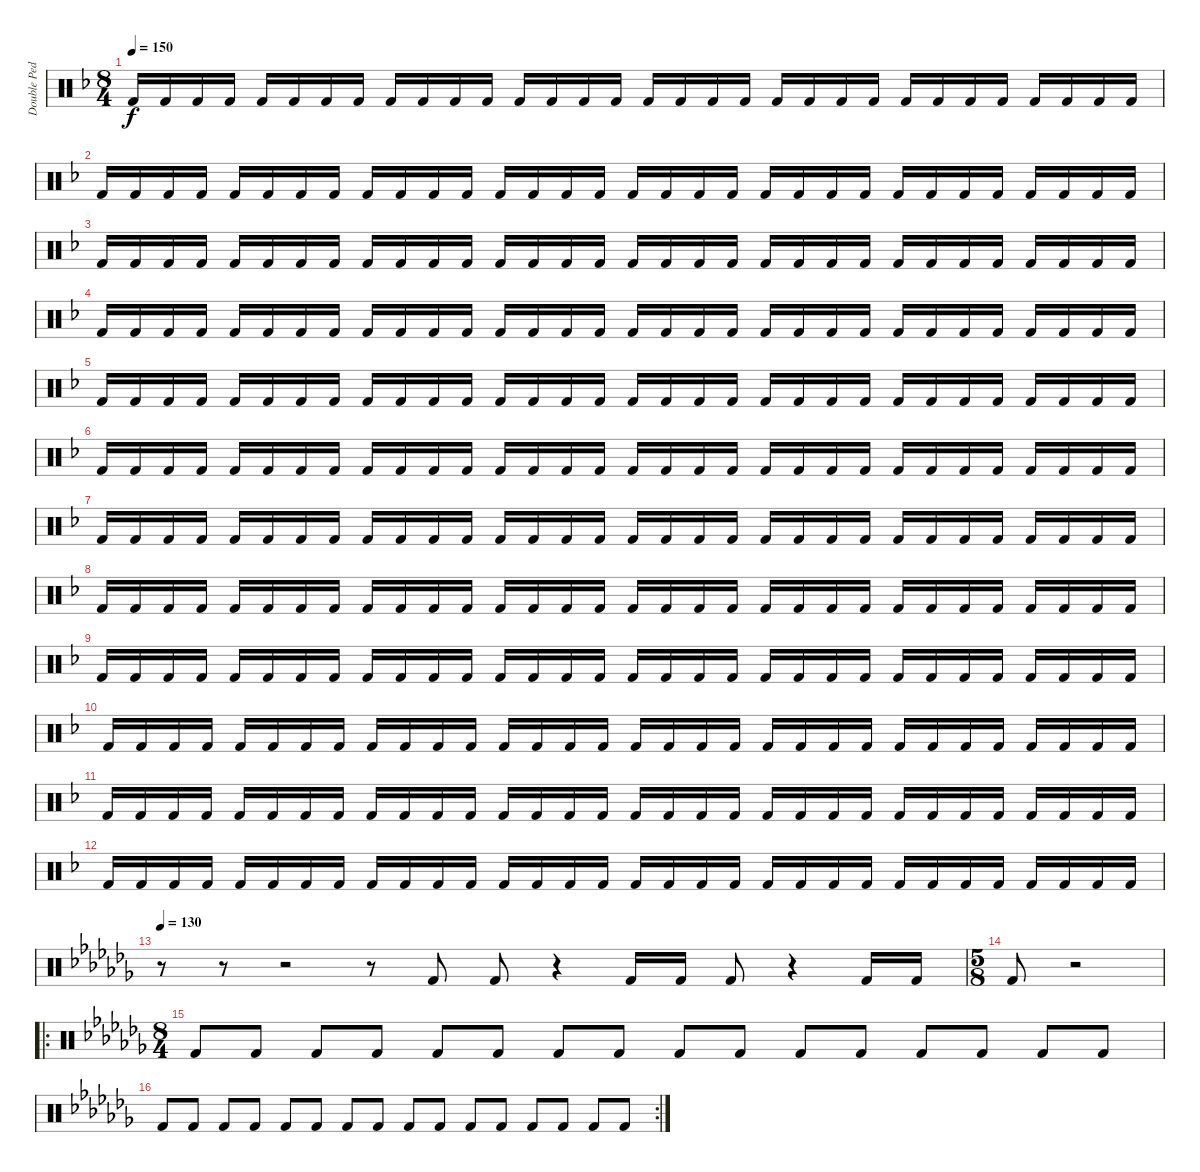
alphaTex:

\track ("Double Pedal" "Double Ped") {instrument percussion}
\staff
\articulation defaults
\ts (8 4)
\tempo 150
\clef neutral
\ks f "Kick (hit) 2".16{dy f} "Kick (hit) 2".16 "Kick (hit) 2".16 "Kick (hit) 2".16 "Kick (hit) 2".16 "Kick (hit) 2".16 "Kick (hit) 2".16 "Kick (hit) 2".16 "Kick (hit) 2".16 "Kick (hit) 2".16 "Kick (hit) 2".16 "Kick (hit) 2".16 "Kick (hit) 2".16 "Kick (hit) 2".16 "Kick (hit) 2".16 "Kick (hit) 2".16 "Kick (hit) 2".16 "Kick (hit) 2".16 "Kick (hit) 2".16 "Kick (hit) 2".16 "Kick (hit) 2".16 "Kick (hit) 2".16 "Kick (hit) 2".16 "Kick (hit) 2".16 "Kick (hit) 2".16 "Kick (hit) 2".16 "Kick (hit) 2".16 "Kick (hit) 2".16 "Kick (hit) 2".16 "Kick (hit) 2".16 "Kick (hit) 2".16 "Kick (hit) 2".16
|
"Kick (hit) 2".16 "Kick (hit) 2".16 "Kick (hit) 2".16 "Kick (hit) 2".16 "Kick (hit) 2".16 "Kick (hit) 2".16 "Kick (hit) 2".16 "Kick (hit) 2".16 "Kick (hit) 2".16 "Kick (hit) 2".16 "Kick (hit) 2".16 "Kick (hit) 2".16 "Kick (hit) 2".16 "Kick (hit) 2".16 "Kick (hit) 2".16 "Kick (hit) 2".16 "Kick (hit) 2".16 "Kick (hit) 2".16 "Kick (hit) 2".16 "Kick (hit) 2".16 "Kick (hit) 2".16 "Kick (hit) 2".16 "Kick (hit) 2".16 "Kick (hit) 2".16 "Kick (hit) 2".16 "Kick (hit) 2".16 "Kick (hit) 2".16 "Kick (hit) 2".16 "Kick (hit) 2".16 "Kick (hit) 2".16 "Kick (hit) 2".16 "Kick (hit) 2".16 |
"Kick (hit) 2".16 "Kick (hit) 2".16 "Kick (hit) 2".16 "Kick (hit) 2".16 "Kick (hit) 2".16 "Kick (hit) 2".16 "Kick (hit) 2".16 "Kick (hit) 2".16 "Kick (hit) 2".16 "Kick (hit) 2".16 "Kick (hit) 2".16 "Kick (hit) 2".16 "Kick (hit) 2".16 "Kick (hit) 2".16 "Kick (hit) 2".16 "Kick (hit) 2".16 "Kick (hit) 2".16 "Kick (hit) 2".16 "Kick (hit) 2".16 "Kick (hit) 2".16 "Kick (hit) 2".16 "Kick (hit) 2".16 "Kick (hit) 2".16 "Kick (hit) 2".16 "Kick (hit) 2".16 "Kick (hit) 2".16 "Kick (hit) 2".16 "Kick (hit) 2".16 "Kick (hit) 2".16 "Kick (hit) 2".16 "Kick (hit) 2".16 "Kick (hit) 2".16 |
"Kick (hit) 2".16 "Kick (hit) 2".16 "Kick (hit) 2".16 "Kick (hit) 2".16 "Kick (hit) 2".16 "Kick (hit) 2".16 "Kick (hit) 2".16 "Kick (hit) 2".16 "Kick (hit) 2".16 "Kick (hit) 2".16 "Kick (hit) 2".16 "Kick (hit) 2".16 "Kick (hit) 2".16 "Kick (hit) 2".16 "Kick (hit) 2".16 "Kick (hit) 2".16 "Kick (hit) 2".16 "Kick (hit) 2".16 "Kick (hit) 2".16 "Kick (hit) 2".16 "Kick (hit) 2".16 "Kick (hit) 2".16 "Kick (hit) 2".16 "Kick (hit) 2".16 "Kick (hit) 2".16 "Kick (hit) 2".16 "Kick (hit) 2".16 "Kick (hit) 2".16 "Kick (hit) 2".16 "Kick (hit) 2".16 "Kick (hit) 2".16 "Kick (hit) 2".16 |
"Kick (hit) 2".16 "Kick (hit) 2".16 "Kick (hit) 2".16 "Kick (hit) 2".16 "Kick (hit) 2".16 "Kick (hit) 2".16 "Kick (hit) 2".16 "Kick (hit) 2".16 "Kick (hit) 2".16 "Kick (hit) 2".16 "Kick (hit) 2".16 "Kick (hit) 2".16 "Kick (hit) 2".16 "Kick (hit) 2".16 "Kick (hit) 2".16 "Kick (hit) 2".16 "Kick (hit) 2".16 "Kick (hit) 2".16 "Kick (hit) 2".16 "Kick (hit) 2".16 "Kick (hit) 2".16 "Kick (hit) 2".16 "Kick (hit) 2".16 "Kick (hit) 2".16 "Kick (hit) 2".16 "Kick (hit) 2".16 "Kick (hit) 2".16 "Kick (hit) 2".16 "Kick (hit) 2".16 "Kick (hit) 2".16 "Kick (hit) 2".16 "Kick (hit) 2".16 |
"Kick (hit) 2".16 "Kick (hit) 2".16 "Kick (hit) 2".16 "Kick (hit) 2".16 "Kick (hit) 2".16 "Kick (hit) 2".16 "Kick (hit) 2".16 "Kick (hit) 2".16 "Kick (hit) 2".16 "Kick (hit) 2".16 "Kick (hit) 2".16 "Kick (hit) 2".16 "Kick (hit) 2".16 "Kick (hit) 2".16 "Kick (hit) 2".16 "Kick (hit) 2".16 "Kick (hit) 2".16 "Kick (hit) 2".16 "Kick (hit) 2".16 "Kick (hit) 2".16 "Kick (hit) 2".16 "Kick (hit) 2".16 "Kick (hit) 2".16 "Kick (hit) 2".16 "Kick (hit) 2".16 "Kick (hit) 2".16 "Kick (hit) 2".16 "Kick (hit) 2".16 "Kick (hit) 2".16 "Kick (hit) 2".16 "Kick (hit) 2".16 "Kick (hit) 2".16 |
"Kick (hit) 2".16 "Kick (hit) 2".16 "Kick (hit) 2".16 "Kick (hit) 2".16 "Kick (hit) 2".16 "Kick (hit) 2".16 "Kick (hit) 2".16 "Kick (hit) 2".16 "Kick (hit) 2".16 "Kick (hit) 2".16 "Kick (hit) 2".16 "Kick (hit) 2".16 "Kick (hit) 2".16 "Kick (hit) 2".16 "Kick (hit) 2".16 "Kick (hit) 2".16 "Kick (hit) 2".16 "Kick (hit) 2".16 "Kick (hit) 2".16 "Kick (hit) 2".16 "Kick (hit) 2".16 "Kick (hit) 2".16 "Kick (hit) 2".16 "Kick (hit) 2".16 "Kick (hit) 2".16 "Kick (hit) 2".16 "Kick (hit) 2".16 "Kick (hit) 2".16 "Kick (hit) 2".16 "Kick (hit) 2".16 "Kick (hit) 2".16 "Kick (hit) 2".16 |
"Kick (hit) 2".16 "Kick (hit) 2".16 "Kick (hit) 2".16 "Kick (hit) 2".16 "Kick (hit) 2".16 "Kick (hit) 2".16 "Kick (hit) 2".16 "Kick (hit) 2".16 "Kick (hit) 2".16 "Kick (hit) 2".16 "Kick (hit) 2".16 "Kick (hit) 2".16 "Kick (hit) 2".16 "Kick (hit) 2".16 "Kick (hit) 2".16 "Kick (hit) 2".16 "Kick (hit) 2".16 "Kick (hit) 2".16 "Kick (hit) 2".16 "Kick (hit) 2".16 "Kick (hit) 2".16 "Kick (hit) 2".16 "Kick (hit) 2".16 "Kick (hit) 2".16 "Kick (hit) 2".16 "Kick (hit) 2".16 "Kick (hit) 2".16 "Kick (hit) 2".16 "Kick (hit) 2".16 "Kick (hit) 2".16 "Kick (hit) 2".16 "Kick (hit) 2".16 |
"Kick (hit) 2".16 "Kick (hit) 2".16 "Kick (hit) 2".16 "Kick (hit) 2".16 "Kick (hit) 2".16 "Kick (hit) 2".16 "Kick (hit) 2".16 "Kick (hit) 2".16 "Kick (hit) 2".16 "Kick (hit) 2".16 "Kick (hit) 2".16 "Kick (hit) 2".16 "Kick (hit) 2".16 "Kick (hit) 2".16 "Kick (hit) 2".16 "Kick (hit) 2".16 "Kick (hit) 2".16 "Kick (hit) 2".16 "Kick (hit) 2".16 "Kick (hit) 2".16 "Kick (hit) 2".16 "Kick (hit) 2".16 "Kick (hit) 2".16 "Kick (hit) 2".16 "Kick (hit) 2".16 "Kick (hit) 2".16 "Kick (hit) 2".16 "Kick (hit) 2".16 "Kick (hit) 2".16 "Kick (hit) 2".16 "Kick (hit) 2".16 "Kick (hit) 2".16 |
"Kick (hit) 2".16 "Kick (hit) 2".16 "Kick (hit) 2".16 "Kick (hit) 2".16 "Kick (hit) 2".16 "Kick (hit) 2".16 "Kick (hit) 2".16 "Kick (hit) 2".16 "Kick (hit) 2".16 "Kick (hit) 2".16 "Kick (hit) 2".16 "Kick (hit) 2".16 "Kick (hit) 2".16 "Kick (hit) 2".16 "Kick (hit) 2".16 "Kick (hit) 2".16 "Kick (hit) 2".16 "Kick (hit) 2".16 "Kick (hit) 2".16 "Kick (hit) 2".16 "Kick (hit) 2".16 "Kick (hit) 2".16 "Kick (hit) 2".16 "Kick (hit) 2".16 "Kick (hit) 2".16 "Kick (hit) 2".16 "Kick (hit) 2".16 "Kick (hit) 2".16 "Kick (hit) 2".16 "Kick (hit) 2".16 "Kick (hit) 2".16 "Kick (hit) 2".16 |
"Kick (hit) 2".16 "Kick (hit) 2".16 "Kick (hit) 2".16 "Kick (hit) 2".16 "Kick (hit) 2".16 "Kick (hit) 2".16 "Kick (hit) 2".16 "Kick (hit) 2".16 "Kick (hit) 2".16 "Kick (hit) 2".16 "Kick (hit) 2".16 "Kick (hit) 2".16 "Kick (hit) 2".16 "Kick (hit) 2".16 "Kick (hit) 2".16 "Kick (hit) 2".16 "Kick (hit) 2".16 "Kick (hit) 2".16 "Kick (hit) 2".16 "Kick (hit) 2".16 "Kick (hit) 2".16 "Kick (hit) 2".16 "Kick (hit) 2".16 "Kick (hit) 2".16 "Kick (hit) 2".16 "Kick (hit) 2".16 "Kick (hit) 2".16 "Kick (hit) 2".16 "Kick (hit) 2".16 "Kick (hit) 2".16 "Kick (hit) 2".16 "Kick (hit) 2".16 |
"Kick (hit) 2".16 "Kick (hit) 2".16 "Kick (hit) 2".16 "Kick (hit) 2".16 "Kick (hit) 2".16 "Kick (hit) 2".16 "Kick (hit) 2".16 "Kick (hit) 2".16 "Kick (hit) 2".16 "Kick (hit) 2".16 "Kick (hit) 2".16 "Kick (hit) 2".16 "Kick (hit) 2".16 "Kick (hit) 2".16 "Kick (hit) 2".16 "Kick (hit) 2".16 "Kick (hit) 2".16 "Kick (hit) 2".16 "Kick (hit) 2".16 "Kick (hit) 2".16 "Kick (hit) 2".16 "Kick (hit) 2".16 "Kick (hit) 2".16 "Kick (hit) 2".16 "Kick (hit) 2".16 "Kick (hit) 2".16 "Kick (hit) 2".16 "Kick (hit) 2".16 "Kick (hit) 2".16 "Kick (hit) 2".16 "Kick (hit) 2".16 "Kick (hit) 2".16 |
\tempo 130
\ks cb
r.8 r.8 r.2 r.8 "Kick (hit) 2".8 "Kick (hit) 2".8 r.4 "Kick (hit) 2".16 "Kick (hit) 2".16 "Kick (hit) 2".8 r.4 "Kick (hit) 2".16 "Kick (hit) 2".16 |
\ts (5 8)
"Kick (hit) 2".8 r.2 |
\ro
\ts (8 4)
"Kick (hit) 2".8 "Kick (hit) 2".8 "Kick (hit) 2".8 "Kick (hit) 2".8 "Kick (hit) 2".8 "Kick (hit) 2".8 "Kick (hit) 2".8 "Kick (hit) 2".8 "Kick (hit) 2".8 "Kick (hit) 2".8 "Kick (hit) 2".8 "Kick (hit) 2".8 "Kick (hit) 2".8 "Kick (hit) 2".8 "Kick (hit) 2".8 "Kick (hit) 2".8 |
\rc 2 "Kick (hit) 2".8 "Kick (hit) 2".8 "Kick (hit) 2".8 "Kick (hit) 2".8 "Kick (hit) 2".8 "Kick (hit) 2".8 "Kick (hit) 2".8 "Kick (hit) 2".8 "Kick (hit) 2".8 "Kick (hit) 2".8 "Kick (hit) 2".8 "Kick (hit) 2".8 "Kick (hit) 2".8 "Kick (hit) 2".8 "Kick (hit) 2".8 "Kick (hit) 2".8
